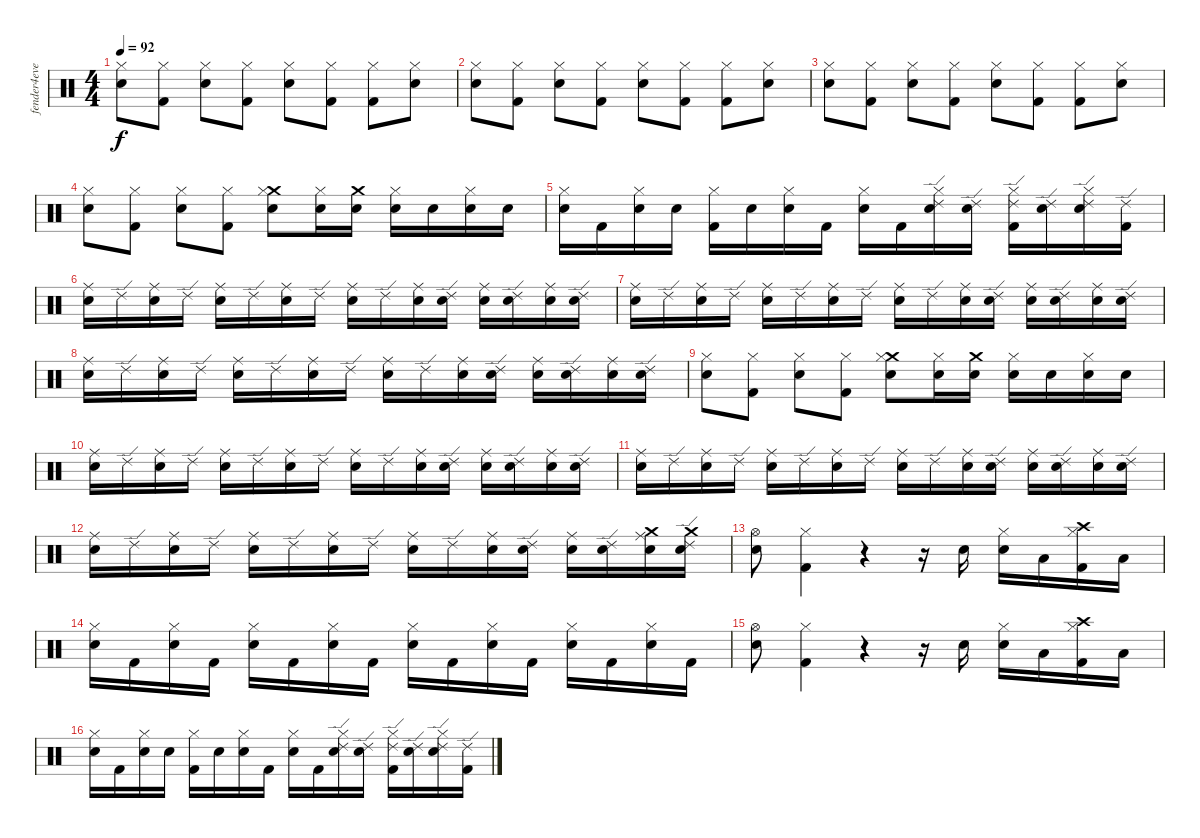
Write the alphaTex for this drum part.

\track ("fender4ever@hotmail.com" "fender4eve") {instrument percussion}
\staff {score}
\articulation defaults
\ts (4 4)
\tempo 92
\clef neutral
\ks c
("Electric Snare (hit)" "Hi-Hat (closed)").8{dy f} ("Kick (hit) 2" "Hi-Hat (closed)").8 ("Electric Snare (hit)" "Hi-Hat (closed)").8 ("Kick (hit) 2" "Hi-Hat (closed)").8 ("Electric Snare (hit)" "Hi-Hat (closed)").8 ("Kick (hit) 2" "Hi-Hat (closed)").8 ("Kick (hit) 2" "Hi-Hat (closed)").8 ("Electric Snare (hit)" "Hi-Hat (closed)").8 |
("Electric Snare (hit)" "Hi-Hat (closed)").8 ("Kick (hit) 2" "Hi-Hat (closed)").8 ("Electric Snare (hit)" "Hi-Hat (closed)").8 ("Kick (hit) 2" "Hi-Hat (closed)").8 ("Electric Snare (hit)" "Hi-Hat (closed)").8 ("Kick (hit) 2" "Hi-Hat (closed)").8 ("Kick (hit) 2" "Hi-Hat (closed)").8 ("Electric Snare (hit)" "Hi-Hat (closed)").8 |
("Electric Snare (hit)" "Hi-Hat (closed)").8 ("Kick (hit) 2" "Hi-Hat (closed)").8 ("Electric Snare (hit)" "Hi-Hat (closed)").8 ("Kick (hit) 2" "Hi-Hat (closed)").8 ("Electric Snare (hit)" "Hi-Hat (closed)").8 ("Kick (hit) 2" "Hi-Hat (closed)").8 ("Kick (hit) 2" "Hi-Hat (closed)").8 ("Electric Snare (hit)" "Hi-Hat (closed)").8 |
("Electric Snare (hit)" "Hi-Hat (closed)").8 ("Kick (hit) 2" "Hi-Hat (closed)").8 ("Electric Snare (hit)" "Hi-Hat (closed)").8 ("Kick (hit) 2" "Hi-Hat (closed)").8 ("Electric Snare (hit)" "Crash medium (hit)" "Hi-Hat (closed)").8 ("Electric Snare (hit)" "Hi-Hat (closed)").16 ("Electric Snare (hit)" "Crash medium (hit)").16 ("Electric Snare (hit)" "Hi-Hat (closed)").16 "Electric Snare (hit)".16 ("Electric Snare (hit)" "Hi-Hat (closed)").16 "Electric Snare (hit)".16 |
("Electric Snare (hit)" "Hi-Hat (closed)").16 "Kick (hit) 2".16 ("Electric Snare (hit)" "Hi-Hat (closed)").16 "Electric Snare (hit)".16 ("Kick (hit) 2" "Hi-Hat (closed)").16 "Electric Snare (hit)".16 ("Electric Snare (hit)" "Hi-Hat (closed)").16 "Kick (hit) 2".16 ("Electric Snare (hit)" "Hi-Hat (closed)").16 "Kick (hit) 2".16 ("Electric Snare (hit)" "Ride (edge) 2" "Hi-Hat (closed)").16 ("Electric Snare (hit)" "Ride (edge) 2").16 ("Kick (hit) 2" "Ride (edge) 2" "Hi-Hat (closed)").16 ("Electric Snare (hit)" "Ride (edge) 2").16 ("Electric Snare (hit)" "Ride (edge) 2" "Hi-Hat (closed)").16 ("Kick (hit) 2" "Ride (edge) 2").16 |
("Electric Snare (hit)" "Ride (middle)").16 "Ride (edge) 2".16 ("Electric Snare (hit)" "Ride (middle)").16 "Ride (edge) 2".16 ("Electric Snare (hit)" "Ride (middle)").16 "Ride (edge) 2".16 ("Electric Snare (hit)" "Ride (middle)").16 "Ride (edge) 2".16 ("Electric Snare (hit)" "Ride (middle)").16 "Ride (edge) 2".16 ("Electric Snare (hit)" "Ride (middle)").16 ("Electric Snare (hit)" "Ride (edge) 2").16 ("Electric Snare (hit)" "Ride (middle)").16 ("Electric Snare (hit)" "Ride (edge) 2").16 ("Electric Snare (hit)" "Ride (middle)").16 ("Electric Snare (hit)" "Ride (edge) 2").16 |
("Electric Snare (hit)" "Ride (middle)").16 "Ride (edge) 2".16 ("Electric Snare (hit)" "Ride (middle)").16 "Ride (edge) 2".16 ("Electric Snare (hit)" "Ride (middle)").16 "Ride (edge) 2".16 ("Electric Snare (hit)" "Ride (middle)").16 "Ride (edge) 2".16 ("Electric Snare (hit)" "Ride (middle)").16 "Ride (edge) 2".16 ("Electric Snare (hit)" "Ride (middle)").16 ("Electric Snare (hit)" "Ride (edge) 2").16 ("Electric Snare (hit)" "Ride (middle)").16 ("Electric Snare (hit)" "Ride (edge) 2").16 ("Electric Snare (hit)" "Ride (middle)").16 ("Electric Snare (hit)" "Ride (edge) 2").16 |
("Electric Snare (hit)" "Ride (middle)").16 "Ride (edge) 2".16 ("Electric Snare (hit)" "Ride (middle)").16 "Ride (edge) 2".16 ("Electric Snare (hit)" "Ride (middle)").16 "Ride (edge) 2".16 ("Electric Snare (hit)" "Ride (middle)").16 "Ride (edge) 2".16 ("Electric Snare (hit)" "Ride (middle)").16 "Ride (edge) 2".16 ("Electric Snare (hit)" "Ride (middle)").16 ("Electric Snare (hit)" "Ride (edge) 2").16 ("Electric Snare (hit)" "Ride (middle)").16 ("Electric Snare (hit)" "Ride (edge) 2").16 ("Electric Snare (hit)" "Ride (middle)").16 ("Electric Snare (hit)" "Ride (edge) 2").16 |
("Electric Snare (hit)" "Hi-Hat (closed)").8 ("Kick (hit) 2" "Hi-Hat (closed)").8 ("Electric Snare (hit)" "Hi-Hat (closed)").8 ("Kick (hit) 2" "Hi-Hat (closed)").8 ("Electric Snare (hit)" "Crash medium (hit)" "Hi-Hat (closed)").8 ("Electric Snare (hit)" "Hi-Hat (closed)").16 ("Electric Snare (hit)" "Crash medium (hit)").16 ("Electric Snare (hit)" "Hi-Hat (closed)").16 "Electric Snare (hit)".16 ("Electric Snare (hit)" "Hi-Hat (closed)").16 "Electric Snare (hit)".16 |
("Electric Snare (hit)" "Ride (middle)").16 "Ride (edge) 2".16 ("Electric Snare (hit)" "Ride (middle)").16 "Ride (edge) 2".16 ("Electric Snare (hit)" "Ride (middle)").16 "Ride (edge) 2".16 ("Electric Snare (hit)" "Ride (middle)").16 "Ride (edge) 2".16 ("Electric Snare (hit)" "Ride (middle)").16 "Ride (edge) 2".16 ("Electric Snare (hit)" "Ride (middle)").16 ("Electric Snare (hit)" "Ride (edge) 2").16 ("Electric Snare (hit)" "Ride (middle)").16 ("Electric Snare (hit)" "Ride (edge) 2").16 ("Electric Snare (hit)" "Ride (middle)").16 ("Electric Snare (hit)" "Ride (edge) 2").16 |
("Electric Snare (hit)" "Ride (middle)").16 "Ride (edge) 2".16 ("Electric Snare (hit)" "Ride (middle)").16 "Ride (edge) 2".16 ("Electric Snare (hit)" "Ride (middle)").16 "Ride (edge) 2".16 ("Electric Snare (hit)" "Ride (middle)").16 "Ride (edge) 2".16 ("Electric Snare (hit)" "Ride (middle)").16 "Ride (edge) 2".16 ("Electric Snare (hit)" "Ride (middle)").16 ("Electric Snare (hit)" "Ride (edge) 2").16 ("Electric Snare (hit)" "Ride (middle)").16 ("Electric Snare (hit)" "Ride (edge) 2").16 ("Electric Snare (hit)" "Ride (middle)").16 ("Electric Snare (hit)" "Ride (edge) 2").16 |
("Electric Snare (hit)" "Ride (middle)").16 "Ride (edge) 2".16 ("Electric Snare (hit)" "Ride (middle)").16 "Ride (edge) 2".16 ("Electric Snare (hit)" "Ride (middle)").16 "Ride (edge) 2".16 ("Electric Snare (hit)" "Ride (middle)").16 "Ride (edge) 2".16 ("Electric Snare (hit)" "Ride (middle)").16 "Ride (edge) 2".16 ("Electric Snare (hit)" "Ride (middle)").16 ("Electric Snare (hit)" "Ride (edge) 2").16 ("Electric Snare (hit)" "Ride (middle)").16 ("Electric Snare (hit)" "Ride (edge) 2").16 ("Electric Snare (hit)" "Ride (middle)" "Crash medium (hit)").16 ("Electric Snare (hit)" "Ride (edge) 2" "Crash medium (hit)").16 |
("Electric Snare (hit)" "Hi-Hat (open)").8 ("Kick (hit) 2" "Hi-Hat (closed)").4 r.4 r.16 "Electric Snare (hit)".16 ("Electric Snare (hit)" "Hi-Hat (closed)").16 "Low Floor Tom (hit)".16 ("Kick (hit) 2" "Crash high (hit)" "Hi-Hat (closed)").16 "Low Floor Tom (hit)".16 |
("Electric Snare (hit)" "Hi-Hat (closed)").16 "Kick (hit) 2".16 ("Electric Snare (hit)" "Hi-Hat (closed)").16 "Kick (hit) 2".16 ("Electric Snare (hit)" "Hi-Hat (closed)").16 "Kick (hit) 2".16 ("Electric Snare (hit)" "Hi-Hat (closed)").16 "Kick (hit) 2".16 ("Electric Snare (hit)" "Hi-Hat (closed)").16 "Kick (hit) 2".16 ("Electric Snare (hit)" "Hi-Hat (closed)").16 "Kick (hit) 2".16 ("Electric Snare (hit)" "Hi-Hat (closed)").16 "Kick (hit) 2".16 ("Electric Snare (hit)" "Hi-Hat (closed)").16 "Kick (hit) 2".16 |
("Electric Snare (hit)" "Hi-Hat (open)").8 ("Kick (hit) 2" "Hi-Hat (closed)").4 r.4 r.16 "Electric Snare (hit)".16 ("Electric Snare (hit)" "Hi-Hat (closed)").16 "Low Floor Tom (hit)".16 ("Kick (hit) 2" "Crash high (hit)" "Hi-Hat (closed)").16 "Low Floor Tom (hit)".16 |
("Electric Snare (hit)" "Hi-Hat (closed)").16 "Kick (hit) 2".16 ("Electric Snare (hit)" "Hi-Hat (closed)").16 "Electric Snare (hit)".16 ("Kick (hit) 2" "Hi-Hat (closed)").16 "Electric Snare (hit)".16 ("Electric Snare (hit)" "Hi-Hat (closed)").16 "Kick (hit) 2".16 ("Electric Snare (hit)" "Hi-Hat (closed)").16 "Kick (hit) 2".16 ("Electric Snare (hit)" "Ride (edge) 2" "Hi-Hat (closed)").16 ("Electric Snare (hit)" "Ride (edge) 2").16 ("Kick (hit) 2" "Ride (edge) 2" "Hi-Hat (closed)").16 ("Electric Snare (hit)" "Ride (edge) 2").16 ("Electric Snare (hit)" "Ride (edge) 2" "Hi-Hat (closed)").16 ("Kick (hit) 2" "Ride (edge) 2").16
